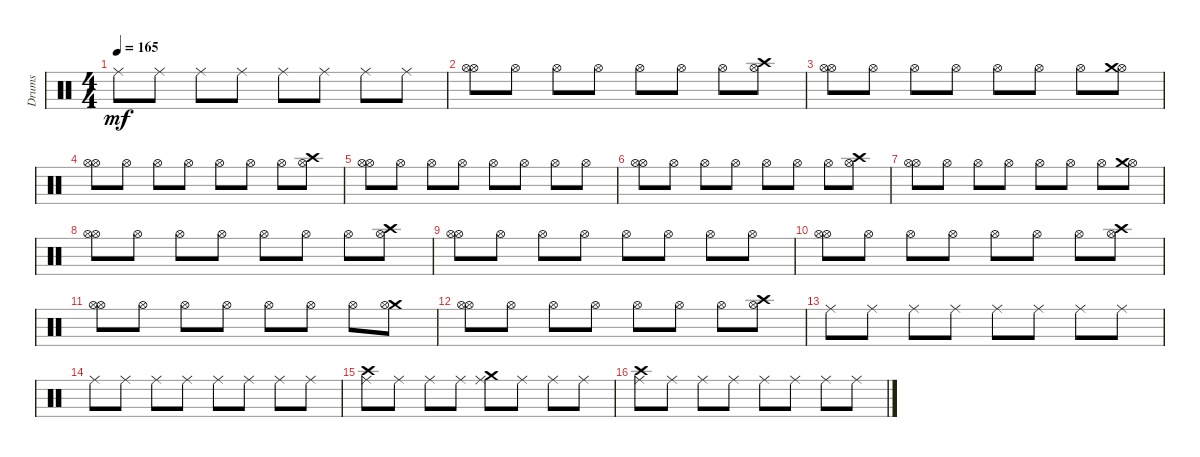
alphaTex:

\track ("Drums" "Drums") {instrument percussion}
\staff {score}
\articulation defaults
\ts (4 4)
\tempo 165
\clef neutral
\ks c "Ride (middle)".8{dy mf} "Ride (middle)".8 "Ride (middle)".8 "Ride (middle)".8 "Ride (middle)".8 "Ride (middle)".8 "Ride (middle)".8 "Ride (middle)".8
|
("Hi-Hat (open)" "Hi-Hat (open)").8 "Hi-Hat (open)".8 "Hi-Hat (open)".8 "Hi-Hat (open)".8 "Hi-Hat (open)".8 "Hi-Hat (open)".8 "Hi-Hat (open)".8 ("Hi-Hat (open)" "Crash high (hit)").8 |
("Hi-Hat (open)" "Hi-Hat (open)").8 "Hi-Hat (open)".8 "Hi-Hat (open)".8 "Hi-Hat (open)".8 "Hi-Hat (open)".8 "Hi-Hat (open)".8 "Hi-Hat (open)".8 ("Hi-Hat (open)" "Crash medium (hit)").8 |
("Hi-Hat (open)" "Hi-Hat (open)").8 "Hi-Hat (open)".8 "Hi-Hat (open)".8 "Hi-Hat (open)".8 "Hi-Hat (open)".8 "Hi-Hat (open)".8 "Hi-Hat (open)".8 ("Hi-Hat (open)" "Crash high (hit)").8 |
("Hi-Hat (open)" "Hi-Hat (open)").8 "Hi-Hat (open)".8 "Hi-Hat (open)".8 "Hi-Hat (open)".8 "Hi-Hat (open)".8 "Hi-Hat (open)".8 "Hi-Hat (open)".8 "Hi-Hat (open)".8 |
("Hi-Hat (open)" "Hi-Hat (open)").8 "Hi-Hat (open)".8 "Hi-Hat (open)".8 "Hi-Hat (open)".8 "Hi-Hat (open)".8 "Hi-Hat (open)".8 "Hi-Hat (open)".8 ("Hi-Hat (open)" "Crash high (hit)").8 |
("Hi-Hat (open)" "Hi-Hat (open)").8 "Hi-Hat (open)".8 "Hi-Hat (open)".8 "Hi-Hat (open)".8 "Hi-Hat (open)".8 "Hi-Hat (open)".8 "Hi-Hat (open)".8 ("Hi-Hat (open)" "Crash medium (hit)").8 |
("Hi-Hat (open)" "Hi-Hat (open)").8 "Hi-Hat (open)".8 "Hi-Hat (open)".8 "Hi-Hat (open)".8 "Hi-Hat (open)".8 "Hi-Hat (open)".8 "Hi-Hat (open)".8 ("Hi-Hat (open)" "Crash high (hit)").8 |
("Hi-Hat (open)" "Hi-Hat (open)").8 "Hi-Hat (open)".8 "Hi-Hat (open)".8 "Hi-Hat (open)".8 "Hi-Hat (open)".8 "Hi-Hat (open)".8 "Hi-Hat (open)".8 "Hi-Hat (open)".8 |
("Hi-Hat (open)" "Hi-Hat (open)").8 "Hi-Hat (open)".8 "Hi-Hat (open)".8 "Hi-Hat (open)".8 "Hi-Hat (open)".8 "Hi-Hat (open)".8 "Hi-Hat (open)".8 ("Crash high (hit)" "Hi-Hat (open)").8 |
("Hi-Hat (open)" "Hi-Hat (open)").8 "Hi-Hat (open)".8 "Hi-Hat (open)".8 "Hi-Hat (open)".8 "Hi-Hat (open)".8 "Hi-Hat (open)".8 "Hi-Hat (open)".8 ("Crash medium (hit)" "Hi-Hat (open)").8 |
("Hi-Hat (open)" "Hi-Hat (open)").8 "Hi-Hat (open)".8 "Hi-Hat (open)".8 "Hi-Hat (open)".8 "Hi-Hat (open)".8 "Hi-Hat (open)".8 "Hi-Hat (open)".8 ("Crash high (hit)" "Hi-Hat (open)").8 |
"Ride (middle)".8 "Ride (middle)".8 "Ride (middle)".8 "Ride (middle)".8 "Ride (middle)".8 "Ride (middle)".8 "Ride (middle)".8 "Ride (middle)".8 |
"Ride (middle)".8 "Ride (middle)".8 "Ride (middle)".8 "Ride (middle)".8 "Ride (middle)".8 "Ride (middle)".8 "Ride (middle)".8 "Ride (middle)".8 |
("Crash high (hit)" "Ride (middle)").8 "Ride (middle)".8 "Ride (middle)".8 "Ride (middle)".8 ("Crash medium (hit)" "Ride (middle)").8 "Ride (middle)".8 "Ride (middle)".8 "Ride (middle)".8 |
("Crash high (hit)" "Ride (middle)").8 "Ride (middle)".8 "Ride (middle)".8 "Ride (middle)".8 "Ride (middle)".8 "Ride (middle)".8 "Ride (middle)".8 "Ride (middle)".8
